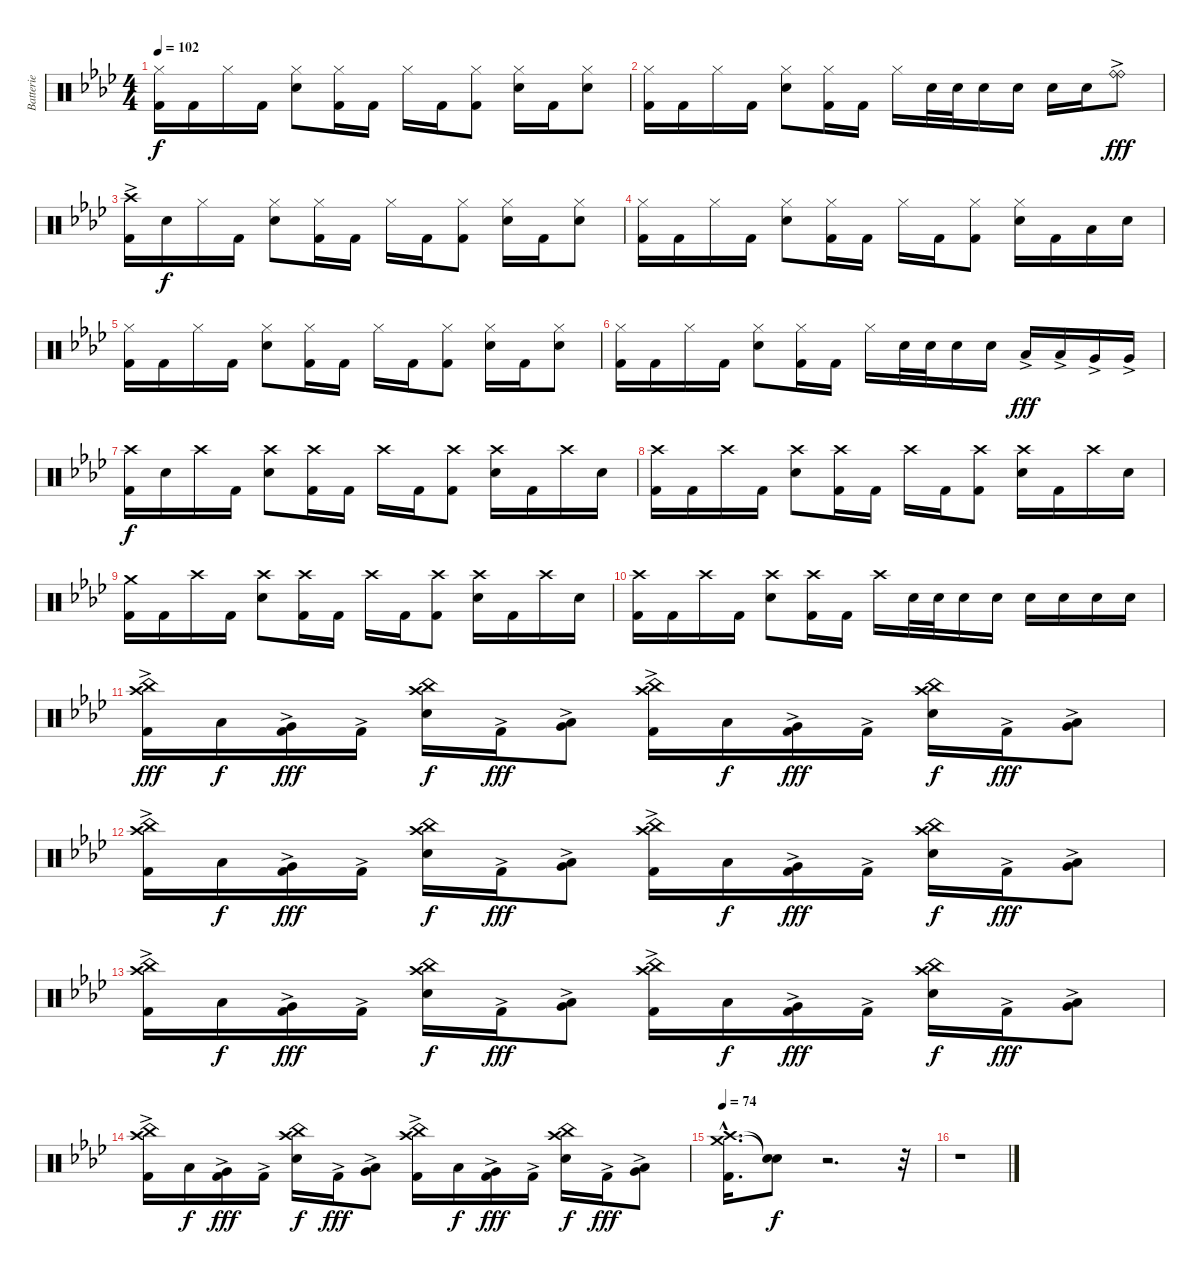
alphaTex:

\track ("Batterie" "Batterie") {instrument percussion}
\staff {score}
\articulation defaults
\ts (4 4)
\tempo 102
\clef neutral
\ks fminor
("Hi-Hat (closed)" "Kick (hit) 2").16{dy f} "Kick (hit) 2".16 "Hi-Hat (closed)".16 "Kick (hit) 2".16 ("Hi-Hat (closed)" "Snare (hit) 2").8 ("Hi-Hat (closed)" "Kick (hit) 2").16 "Kick (hit) 2".16 "Hi-Hat (closed)".16 "Kick (hit) 2".16 ("Hi-Hat (closed)" "Kick (hit) 2").8 ("Hi-Hat (closed)" "Snare (hit) 2").16 "Kick (hit) 2".16 ("Hi-Hat (closed)" "Snare (hit) 2").8 |
("Hi-Hat (closed)" "Kick (hit) 2").16 "Kick (hit) 2".16 "Hi-Hat (closed)".16 "Kick (hit) 2".16 ("Hi-Hat (closed)" "Snare (hit) 2").8 ("Hi-Hat (closed)" "Kick (hit) 2").16 "Kick (hit) 2".16 "Hi-Hat (closed)".16 "Snare (hit) 2".32 "Snare (hit) 2".32 "Snare (hit) 2".16 "Snare (hit) 2".16 "Snare (hit) 2".16 "Snare (hit) 2".16 ("Ride (bell)"{ac} "Ride (bell)"{ac}).8{dy fff} |
("Crash high (hit)" "Kick (hit) 2"{ac}).16 "Snare (hit) 2".16{dy f} "Hi-Hat (closed)".16 "Kick (hit) 2".16 ("Hi-Hat (closed)" "Snare (hit) 2").8 ("Hi-Hat (closed)" "Kick (hit) 2").16 "Kick (hit) 2".16 "Hi-Hat (closed)".16 "Kick (hit) 2".16 ("Hi-Hat (closed)" "Kick (hit) 2").8 ("Hi-Hat (closed)" "Snare (hit) 2").16 "Kick (hit) 2".16 ("Hi-Hat (closed)" "Snare (hit) 2").8 |
("Hi-Hat (closed)" "Kick (hit) 2").16 "Kick (hit) 2".16 "Hi-Hat (closed)".16 "Kick (hit) 2".16 ("Hi-Hat (closed)" "Snare (hit) 2").8 ("Hi-Hat (closed)" "Kick (hit) 2").16 "Kick (hit) 2".16 "Hi-Hat (closed)".16 "Kick (hit) 2".16 ("Hi-Hat (closed)" "Kick (hit) 2").8 ("Hi-Hat (closed)" "Snare (hit) 2").16 "Kick (hit) 2".16 "Low Tom (hit)".16 "Snare (hit) 2".16 |
("Hi-Hat (closed)" "Kick (hit) 2").16 "Kick (hit) 2".16 "Hi-Hat (closed)".16 "Kick (hit) 2".16 ("Hi-Hat (closed)" "Snare (hit) 2").8 ("Hi-Hat (closed)" "Kick (hit) 2").16 "Kick (hit) 2".16 "Hi-Hat (closed)".16 "Kick (hit) 2".16 ("Hi-Hat (closed)" "Kick (hit) 2").8 ("Hi-Hat (closed)" "Snare (hit) 2").16 "Kick (hit) 2".16 ("Hi-Hat (closed)" "Snare (hit) 2").8 |
("Hi-Hat (closed)" "Kick (hit) 2").16 "Kick (hit) 2".16 "Hi-Hat (closed)".16 "Kick (hit) 2".16 ("Hi-Hat (closed)" "Snare (hit) 2").8 ("Hi-Hat (closed)" "Kick (hit) 2").16 "Kick (hit) 2".16 "Hi-Hat (closed)".16 "Snare (hit) 2".32 "Snare (hit) 2".32 "Snare (hit) 2".16 "Snare (hit) 2".16 "Low Tom (hit)"{ac}.16{dy fff} "Low Tom (hit)"{ac}.16 "Very Low Tom (hit)"{ac}.16 "Very Low Tom (hit)"{ac}.16 |
\section ("" "")
("Crash high (hit)" "Kick (hit) 2").16{dy f} "Snare (hit) 2".16 "Crash high (hit)".16 "Kick (hit) 2".16 ("Crash high (hit)" "Snare (hit) 2").8 ("Crash high (hit)" "Kick (hit) 2").16 "Kick (hit) 2".16 "Crash high (hit)".16 "Kick (hit) 2".16 ("Crash high (hit)" "Kick (hit) 2").8 ("Crash high (hit)" "Snare (hit) 2").16 "Kick (hit) 2".16 "Crash high (hit)".16 "Snare (hit) 2".16 |
("Crash high (hit)" "Kick (hit) 2").16 "Kick (hit) 2".16 "Crash high (hit)".16 "Kick (hit) 2".16 ("Crash high (hit)" "Snare (hit) 2").8 ("Crash high (hit)" "Kick (hit) 2").16 "Kick (hit) 2".16 "Crash high (hit)".16 "Kick (hit) 2".16 ("Crash high (hit)" "Kick (hit) 2").8 ("Crash high (hit)" "Snare (hit) 2").16 "Kick (hit) 2".16 "Crash high (hit)".16 "Snare (hit) 2".16 |
("Crash medium (hit)" "Kick (hit) 2").16 "Kick (hit) 2".16 "Crash high (hit)".16 "Kick (hit) 2".16 ("Crash high (hit)" "Snare (hit) 2").8 ("Crash high (hit)" "Kick (hit) 2").16 "Kick (hit) 2".16 "Crash high (hit)".16 "Kick (hit) 2".16 ("Crash high (hit)" "Kick (hit) 2").8 ("Crash high (hit)" "Snare (hit) 2").16 "Kick (hit) 2".16 "Crash high (hit)".16 "Snare (hit) 2".16 |
("Crash high (hit)" "Kick (hit) 2").16 "Kick (hit) 2".16 "Crash high (hit)".16 "Kick (hit) 2".16 ("Crash high (hit)" "Snare (hit) 2").8 ("Crash high (hit)" "Kick (hit) 2").16 "Kick (hit) 2".16 "Crash high (hit)".16 "Snare (hit) 2".32 "Snare (hit) 2".32 "Snare (hit) 2".16 "Snare (hit) 2".16 "Snare (hit) 2".16 "Snare (hit) 2".16 "Snare (hit) 2".16 "Snare (hit) 2".16 |
("Crash high (hit)" "China (hit)" "Kick (hit) 2"{ac}).16{dy fff} "Low Tom (hit)".16{dy f} ("Very Low Tom (hit)" "Kick (hit) 2"{ac}).16{dy fff} "Kick (hit) 2"{ac}.16 ("Crash high (hit)" "China (hit)" "Snare (hit) 2").16{dy f} "Kick (hit) 2"{ac}.16{dy fff} ("Low Tom (hit)" "Very Low Tom (hit)"{ac}).8 ("Crash high (hit)" "China (hit)" "Kick (hit) 2"{ac}).16 "Low Tom (hit)".16{dy f} ("Very Low Tom (hit)" "Kick (hit) 2"{ac}).16{dy fff} "Kick (hit) 2"{ac}.16 ("Crash high (hit)" "China (hit)" "Snare (hit) 2").16{dy f} "Kick (hit) 2"{ac}.16{dy fff} ("Low Tom (hit)" "Very Low Tom (hit)"{ac}).8 |
("Crash high (hit)" "China (hit)" "Kick (hit) 2"{ac}).16 "Low Tom (hit)".16{dy f} ("Very Low Tom (hit)" "Kick (hit) 2"{ac}).16{dy fff} "Kick (hit) 2"{ac}.16 ("Crash high (hit)" "China (hit)" "Snare (hit) 2").16{dy f} "Kick (hit) 2"{ac}.16{dy fff} ("Low Tom (hit)" "Very Low Tom (hit)"{ac}).8 ("Crash high (hit)" "China (hit)" "Kick (hit) 2"{ac}).16 "Low Tom (hit)".16{dy f} ("Very Low Tom (hit)" "Kick (hit) 2"{ac}).16{dy fff} "Kick (hit) 2"{ac}.16 ("Crash high (hit)" "China (hit)" "Snare (hit) 2").16{dy f} "Kick (hit) 2"{ac}.16{dy fff} ("Low Tom (hit)" "Very Low Tom (hit)"{ac}).8 |
("Crash high (hit)" "China (hit)" "Kick (hit) 2"{ac}).16 "Low Tom (hit)".16{dy f} ("Very Low Tom (hit)" "Kick (hit) 2"{ac}).16{dy fff} "Kick (hit) 2"{ac}.16 ("Crash high (hit)" "China (hit)" "Snare (hit) 2").16{dy f} "Kick (hit) 2"{ac}.16{dy fff} ("Low Tom (hit)" "Very Low Tom (hit)"{ac}).8 ("Crash high (hit)" "China (hit)" "Kick (hit) 2"{ac}).16 "Low Tom (hit)".16{dy f} ("Very Low Tom (hit)" "Kick (hit) 2"{ac}).16{dy fff} "Kick (hit) 2"{ac}.16 ("Crash high (hit)" "China (hit)" "Snare (hit) 2").16{dy f} "Kick (hit) 2"{ac}.16{dy fff} ("Low Tom (hit)" "Very Low Tom (hit)"{ac}).8 |
("Crash high (hit)" "China (hit)" "Kick (hit) 2"{ac}).16 "Low Tom (hit)".16{dy f} ("Very Low Tom (hit)" "Kick (hit) 2"{ac}).16{dy fff} "Kick (hit) 2"{ac}.16 ("Crash high (hit)" "China (hit)" "Snare (hit) 2").16{dy f} "Kick (hit) 2"{ac}.16{dy fff} ("Low Tom (hit)" "Very Low Tom (hit)"{ac}).8 ("Crash high (hit)" "China (hit)" "Kick (hit) 2"{ac}).16 "Low Tom (hit)".16{dy f} ("Very Low Tom (hit)" "Kick (hit) 2"{ac}).16{dy fff} "Kick (hit) 2"{ac}.16 ("Crash high (hit)" "China (hit)" "Snare (hit) 2").16{dy f} "Kick (hit) 2"{ac}.16{dy fff} ("Low Tom (hit)"{ac} "Very Low Tom (hit)"{ac}).8 |
\section ("" "")
\tempo 74
("Crash high (hit)"{hac} "Crash medium (hit)"{hac} "Kick (hit) 2"{hac}).16{d} ("Snare (hit)"{t} "Snare (hit)"{t}).8{dy f volume 0} r.2{d} r.32{volume 16} |
r.1
